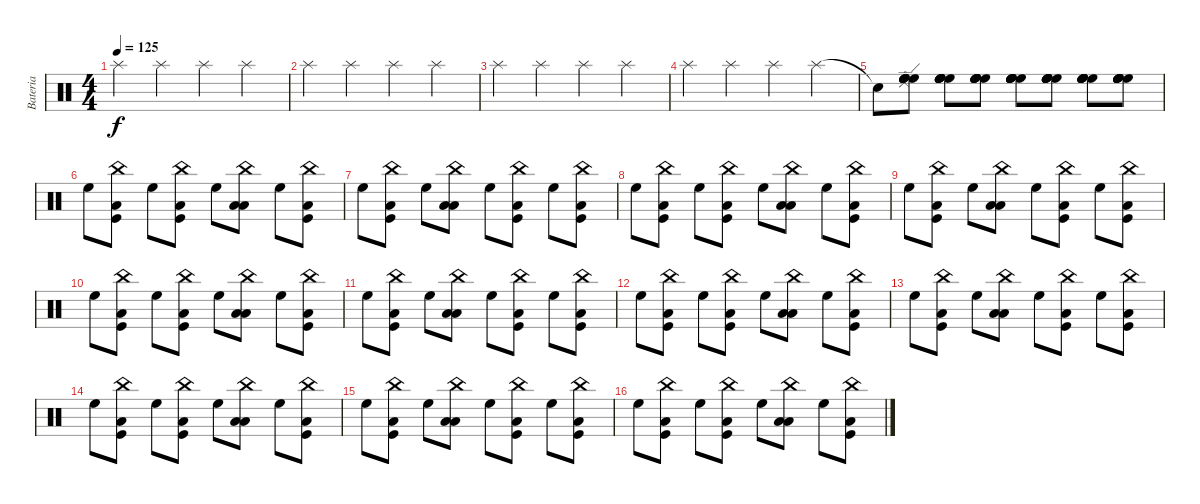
\track ("Bateria" "Bateria") {instrument percussion}
\staff {score}
\articulation defaults
\ts (4 4)
\tempo 125
\clef neutral
\ks c "Splash (hit)".4{dy f} "Splash (hit)".4 "Splash (hit)".4 "Splash (hit)".4
|
"Splash (hit)".4 "Splash (hit)".4 "Splash (hit)".4 "Splash (hit)".4 |
"Splash (hit)".4 "Splash (hit)".4 "Splash (hit)".4 "Splash (hit)".4 |
"Splash (hit)".4 "Splash (hit)".4 "Splash (hit)".4 "Splash (hit)".4 |
"Snare (hit)"{t}.8 ("High Floor Tom (hit)" "High Floor Tom (hit)" "High Floor Tom (hit)" "Ride (edge) 2" "High Floor Tom (hit)" "High Floor Tom (hit)").8 ("High Floor Tom (hit)" "High Floor Tom (hit)" "High Floor Tom (hit)" "High Floor Tom (hit)" "High Floor Tom (hit)" "High Floor Tom (hit)").8 ("High Floor Tom (hit)" "High Floor Tom (hit)" "High Floor Tom (hit)" "High Floor Tom (hit)" "High Floor Tom (hit)" "High Floor Tom (hit)").8 ("High Floor Tom (hit)" "High Floor Tom (hit)" "High Floor Tom (hit)" "High Floor Tom (hit)" "High Floor Tom (hit)" "High Floor Tom (hit)").8 ("High Floor Tom (hit)" "High Floor Tom (hit)" "High Floor Tom (hit)" "High Floor Tom (hit)" "High Floor Tom (hit)" "High Floor Tom (hit)").8 ("High Floor Tom (hit)" "High Floor Tom (hit)" "High Floor Tom (hit)" "High Floor Tom (hit)" "High Floor Tom (hit)" "High Floor Tom (hit)").8 ("High Floor Tom (hit)" "High Floor Tom (hit)" "High Floor Tom (hit)" "High Floor Tom (hit)" "High Floor Tom (hit)" "High Floor Tom (hit)").8 |
"High Floor Tom (hit)".8 ("Low Tom (hit)" "Kick (hit)" "China (hit)").8 "High Floor Tom (hit)".8 ("Low Tom (hit)" "Kick (hit)" "China (hit)").8 "High Floor Tom (hit)".8 ("Low Tom (hit)" "Low Tom (hit)" "China (hit)").8 "High Floor Tom (hit)".8 ("Low Tom (hit)" "Kick (hit)" "China (hit)").8 |
"High Floor Tom (hit)".8 ("Low Tom (hit)" "Kick (hit)" "China (hit)").8 "High Floor Tom (hit)".8 ("Low Tom (hit)" "Low Tom (hit)" "China (hit)").8 "High Floor Tom (hit)".8 ("Low Tom (hit)" "Kick (hit)" "China (hit)").8 "High Floor Tom (hit)".8 ("Low Tom (hit)" "Kick (hit)" "China (hit)").8 |
"High Floor Tom (hit)".8 ("Low Tom (hit)" "Kick (hit)" "China (hit)").8 "High Floor Tom (hit)".8 ("Low Tom (hit)" "Kick (hit)" "China (hit)").8 "High Floor Tom (hit)".8 ("Low Tom (hit)" "Low Tom (hit)" "China (hit)").8 "High Floor Tom (hit)".8 ("Low Tom (hit)" "Kick (hit)" "China (hit)").8 |
"High Floor Tom (hit)".8 ("Low Tom (hit)" "Kick (hit)" "China (hit)").8 "High Floor Tom (hit)".8 ("Low Tom (hit)" "Low Tom (hit)" "China (hit)").8 "High Floor Tom (hit)".8 ("Low Tom (hit)" "Kick (hit)" "China (hit)").8 "High Floor Tom (hit)".8 ("Low Tom (hit)" "Kick (hit)" "China (hit)").8 |
"High Floor Tom (hit)".8 ("Low Tom (hit)" "Kick (hit)" "China (hit)").8 "High Floor Tom (hit)".8 ("Low Tom (hit)" "Kick (hit)" "China (hit)").8 "High Floor Tom (hit)".8 ("Low Tom (hit)" "Low Tom (hit)" "China (hit)").8 "High Floor Tom (hit)".8 ("Low Tom (hit)" "Kick (hit)" "China (hit)").8 |
"High Floor Tom (hit)".8 ("Low Tom (hit)" "Kick (hit)" "China (hit)").8 "High Floor Tom (hit)".8 ("Low Tom (hit)" "Low Tom (hit)" "China (hit)").8 "High Floor Tom (hit)".8 ("Low Tom (hit)" "Kick (hit)" "China (hit)").8 "High Floor Tom (hit)".8 ("Low Tom (hit)" "Kick (hit)" "China (hit)").8 |
"High Floor Tom (hit)".8 ("Low Tom (hit)" "Kick (hit)" "China (hit)").8 "High Floor Tom (hit)".8 ("Low Tom (hit)" "Kick (hit)" "China (hit)").8 "High Floor Tom (hit)".8 ("Low Tom (hit)" "Low Tom (hit)" "China (hit)").8 "High Floor Tom (hit)".8 ("Low Tom (hit)" "Kick (hit)" "China (hit)").8 |
"High Floor Tom (hit)".8 ("Low Tom (hit)" "Kick (hit)" "China (hit)").8 "High Floor Tom (hit)".8 ("Low Tom (hit)" "Low Tom (hit)" "China (hit)").8 "High Floor Tom (hit)".8 ("Low Tom (hit)" "Kick (hit)" "China (hit)").8 "High Floor Tom (hit)".8 ("Low Tom (hit)" "Kick (hit)" "China (hit)").8 |
"High Floor Tom (hit)".8 ("Low Tom (hit)" "Kick (hit)" "China (hit)").8 "High Floor Tom (hit)".8 ("Low Tom (hit)" "Kick (hit)" "China (hit)").8 "High Floor Tom (hit)".8 ("Low Tom (hit)" "Low Tom (hit)" "China (hit)").8 "High Floor Tom (hit)".8 ("Low Tom (hit)" "Kick (hit)" "China (hit)").8 |
"High Floor Tom (hit)".8 ("Low Tom (hit)" "Kick (hit)" "China (hit)").8 "High Floor Tom (hit)".8 ("Low Tom (hit)" "Low Tom (hit)" "China (hit)").8 "High Floor Tom (hit)".8 ("Low Tom (hit)" "Kick (hit)" "China (hit)").8 "High Floor Tom (hit)".8 ("Low Tom (hit)" "Kick (hit)" "China (hit)").8 |
"High Floor Tom (hit)".8 ("Low Tom (hit)" "Kick (hit)" "China (hit)").8 "High Floor Tom (hit)".8 ("Low Tom (hit)" "Kick (hit)" "China (hit)").8 "High Floor Tom (hit)".8 ("Low Tom (hit)" "Low Tom (hit)" "China (hit)").8 "High Floor Tom (hit)".8 ("Low Tom (hit)" "Kick (hit)" "China (hit)").8
